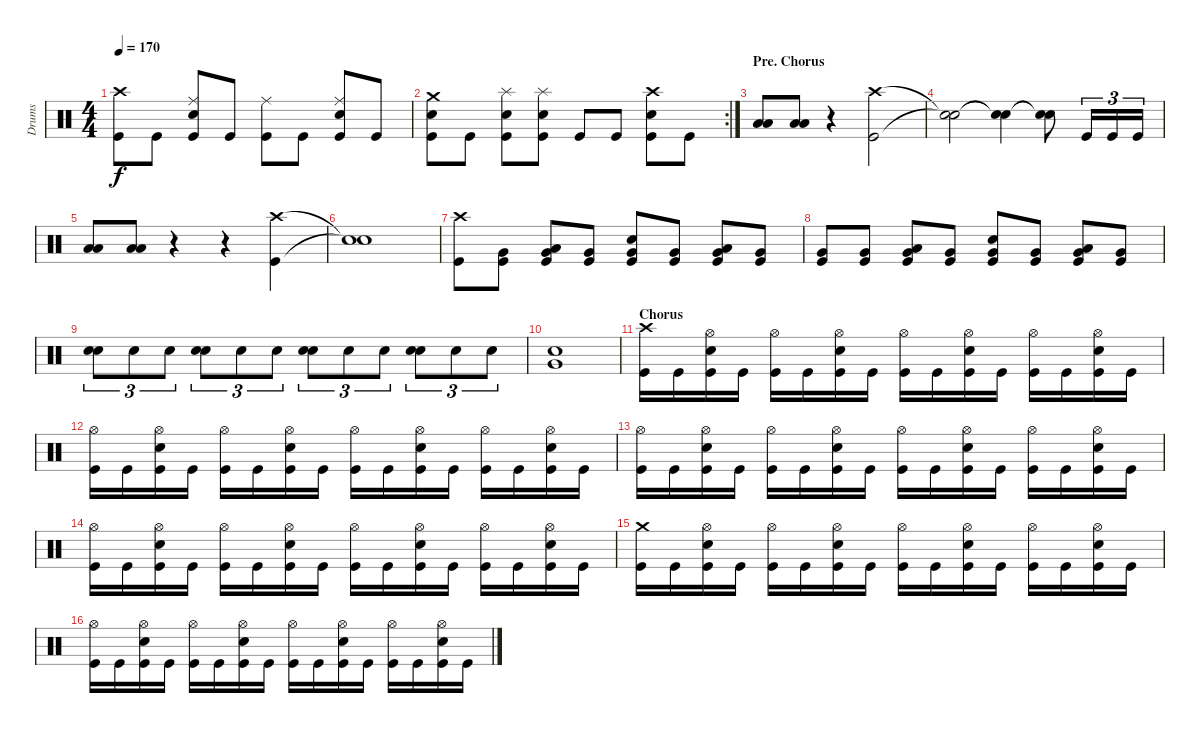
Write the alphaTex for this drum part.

\track ("Drums" "Drums") {instrument percussion}
\staff {score}
\articulation defaults
\ts (4 4)
\tempo 170
\clef neutral
\ks c
("Crash high (hit)" "Kick (hit)").8{dy f} "Kick (hit)".8 ("Ride (middle)" "Snare (hit) 2" "Kick (hit)").8 "Kick (hit)".8 ("Ride (middle)" "Kick (hit)").8 "Kick (hit)".8 ("Ride (middle)" "Snare (hit) 2" "Kick (hit)").8 "Kick (hit)".8 |
\rc 2
("Crash medium (hit)" "Snare (hit) 2" "Kick (hit)").8 "Kick (hit)".8 ("Splash (hit)" "Snare (hit) 2" "Kick (hit)").8 ("Splash (hit)" "Snare (hit) 2" "Kick (hit)").8 "Kick (hit)".8 "Kick (hit)".8 ("Crash high (hit)" "Snare (hit) 2" "Kick (hit)").8 "Kick (hit)".8 |
\section ("" "Pre. Chorus")
("Low Tom (hit)" "Low Floor Tom (hit)").8 ("Low Tom (hit)" "Low Floor Tom (hit)").8 r.4 ("Crash high (hit)" "Kick (hit)").2 |
("Snare (hit)"{t} "Snare (hit)"{t}).2 ("Snare (hit)"{t} "Snare (hit)"{t}).4 ("Snare (hit)"{t} "Snare (hit)"{t}).8 "Kick (hit)".16{tu (3 2)} "Kick (hit)".16{tu (3 2)} "Kick (hit)".16{tu (3 2)} |
("Low Tom (hit)" "Low Floor Tom (hit)").8 ("Low Tom (hit)" "Low Floor Tom (hit)").8 r.4 r.4 ("Crash high (hit)" "Kick (hit)").4 |
("Snare (hit)"{t} "Snare (hit)"{t}).1 |
("Crash high (hit)" "Kick (hit)").8 ("Very Low Tom (hit)" "Kick (hit)").8 ("Low Tom (hit)" "Very Low Tom (hit)" "Kick (hit)").8 ("Very Low Tom (hit)" "Kick (hit)").8 ("Very Low Tom (hit)" "Snare (hit) 2" "Kick (hit)").8 ("Very Low Tom (hit)" "Kick (hit)").8 ("Low Tom (hit)" "Very Low Tom (hit)" "Kick (hit)").8 ("Very Low Tom (hit)" "Kick (hit)").8 |
("Very Low Tom (hit)" "Kick (hit)").8 ("Very Low Tom (hit)" "Kick (hit)").8 ("Low Tom (hit)" "Very Low Tom (hit)" "Kick (hit)").8 ("Very Low Tom (hit)" "Kick (hit)").8 ("Very Low Tom (hit)" "Snare (hit) 2" "Kick (hit)").8 ("Very Low Tom (hit)" "Kick (hit)").8 ("Low Tom (hit)" "Very Low Tom (hit)" "Kick (hit)").8 ("Very Low Tom (hit)" "Kick (hit)").8 |
("Snare (hit) 2" "Snare (hit) 2").8{tu (3 2)} "Snare (hit) 2".8{tu (3 2)} "Snare (hit) 2".8{tu (3 2)} ("Snare (hit) 2" "Snare (hit) 2").8{tu (3 2)} "Snare (hit) 2".8{tu (3 2)} "Snare (hit) 2".8{tu (3 2)} ("Snare (hit) 2" "Snare (hit) 2").8{tu (3 2)} "Snare (hit) 2".8{tu (3 2)} "Snare (hit) 2".8{tu (3 2)} ("Snare (hit) 2" "Snare (hit) 2").8{tu (3 2)} "Snare (hit) 2".8{tu (3 2)} "Snare (hit) 2".8{tu (3 2)} |
("Very Low Tom (hit)" "Snare (hit) 2").1 |
\section ("" "Chorus")
("Crash high (hit)" "Kick (hit)").16 "Kick (hit)".16 ("Hi-Hat (open)" "Snare (hit) 2" "Kick (hit)").16 "Kick (hit)".16 ("Hi-Hat (open)" "Kick (hit)").16 "Kick (hit)".16 ("Hi-Hat (open)" "Snare (hit) 2" "Kick (hit)").16 "Kick (hit)".16 ("Hi-Hat (open)" "Kick (hit)").16 "Kick (hit)".16 ("Hi-Hat (open)" "Snare (hit) 2" "Kick (hit)").16 "Kick (hit)".16 ("Hi-Hat (open)" "Kick (hit)").16 "Kick (hit)".16 ("Hi-Hat (open)" "Snare (hit) 2" "Kick (hit)").16 "Kick (hit)".16 |
("Hi-Hat (open)" "Kick (hit)").16 "Kick (hit)".16 ("Hi-Hat (open)" "Snare (hit) 2" "Kick (hit)").16 "Kick (hit)".16 ("Hi-Hat (open)" "Kick (hit)").16 "Kick (hit)".16 ("Hi-Hat (open)" "Snare (hit) 2" "Kick (hit)").16 "Kick (hit)".16 ("Hi-Hat (open)" "Kick (hit)").16 "Kick (hit)".16 ("Hi-Hat (open)" "Snare (hit) 2" "Kick (hit)").16 "Kick (hit)".16 ("Hi-Hat (open)" "Kick (hit)").16 "Kick (hit)".16 ("Hi-Hat (open)" "Snare (hit) 2" "Kick (hit)").16 "Kick (hit)".16 |
("Hi-Hat (open)" "Kick (hit)").16 "Kick (hit)".16 ("Hi-Hat (open)" "Snare (hit) 2" "Kick (hit)").16 "Kick (hit)".16 ("Hi-Hat (open)" "Kick (hit)").16 "Kick (hit)".16 ("Hi-Hat (open)" "Snare (hit) 2" "Kick (hit)").16 "Kick (hit)".16 ("Hi-Hat (open)" "Kick (hit)").16 "Kick (hit)".16 ("Hi-Hat (open)" "Snare (hit) 2" "Kick (hit)").16 "Kick (hit)".16 ("Hi-Hat (open)" "Kick (hit)").16 "Kick (hit)".16 ("Hi-Hat (open)" "Snare (hit) 2" "Kick (hit)").16 "Kick (hit)".16 |
("Hi-Hat (open)" "Kick (hit)").16 "Kick (hit)".16 ("Hi-Hat (open)" "Snare (hit) 2" "Kick (hit)").16 "Kick (hit)".16 ("Hi-Hat (open)" "Kick (hit)").16 "Kick (hit)".16 ("Hi-Hat (open)" "Snare (hit) 2" "Kick (hit)").16 "Kick (hit)".16 ("Hi-Hat (open)" "Kick (hit)").16 "Kick (hit)".16 ("Hi-Hat (open)" "Snare (hit) 2" "Kick (hit)").16 "Kick (hit)".16 ("Hi-Hat (open)" "Kick (hit)").16 "Kick (hit)".16 ("Hi-Hat (open)" "Snare (hit) 2" "Kick (hit)").16 "Kick (hit)".16 |
("Crash medium (hit)" "Kick (hit)").16 "Kick (hit)".16 ("Hi-Hat (open)" "Snare (hit) 2" "Kick (hit)").16 "Kick (hit)".16 ("Hi-Hat (open)" "Kick (hit)").16 "Kick (hit)".16 ("Hi-Hat (open)" "Snare (hit) 2" "Kick (hit)").16 "Kick (hit)".16 ("Hi-Hat (open)" "Kick (hit)").16 "Kick (hit)".16 ("Hi-Hat (open)" "Snare (hit) 2" "Kick (hit)").16 "Kick (hit)".16 ("Hi-Hat (open)" "Kick (hit)").16 "Kick (hit)".16 ("Hi-Hat (open)" "Snare (hit) 2" "Kick (hit)").16 "Kick (hit)".16 |
("Hi-Hat (open)" "Kick (hit)").16 "Kick (hit)".16 ("Hi-Hat (open)" "Snare (hit) 2" "Kick (hit)").16 "Kick (hit)".16 ("Hi-Hat (open)" "Kick (hit)").16 "Kick (hit)".16 ("Hi-Hat (open)" "Snare (hit) 2" "Kick (hit)").16 "Kick (hit)".16 ("Hi-Hat (open)" "Kick (hit)").16 "Kick (hit)".16 ("Hi-Hat (open)" "Snare (hit) 2" "Kick (hit)").16 "Kick (hit)".16 ("Hi-Hat (open)" "Kick (hit)").16 "Kick (hit)".16 ("Hi-Hat (open)" "Snare (hit) 2" "Kick (hit)").16 "Kick (hit)".16
